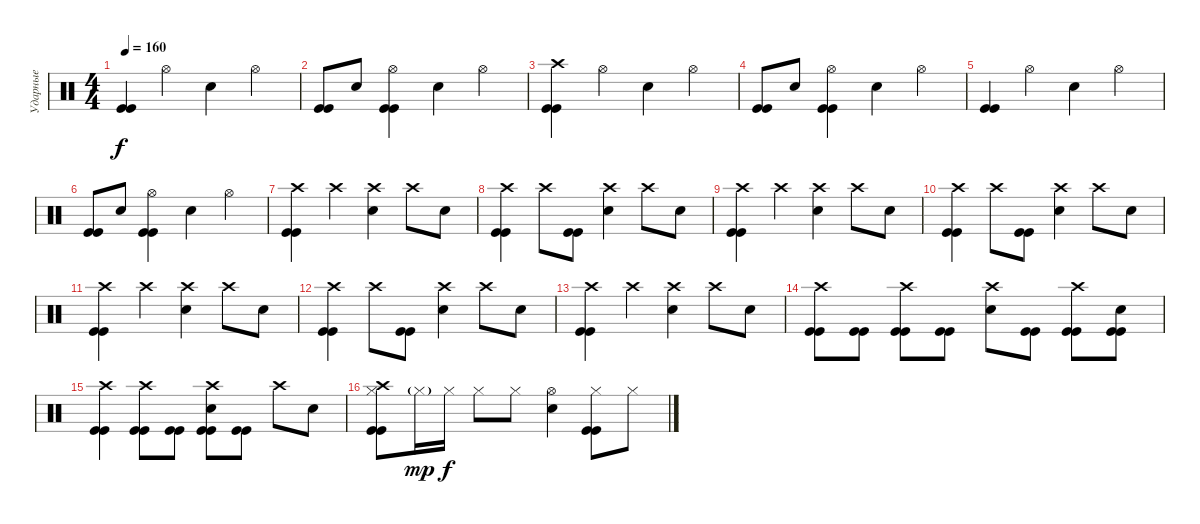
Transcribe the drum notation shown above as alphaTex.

\track ("Ударные" "Ударные") {instrument percussion}
\staff {score}
\articulation defaults
\ts (4 4)
\tempo 160
\clef neutral
\ks c
("Kick (hit)" "Kick (hit)").4{dy f} "Hi-Hat (open)".4 "Electric Snare (hit)".4 "Hi-Hat (open)".4 |
("Kick (hit)" "Kick (hit)").8 "Electric Snare (hit)".8 ("Hi-Hat (open)" "Kick (hit)" "Kick (hit)").4 "Electric Snare (hit)".4 "Hi-Hat (open)".4 |
("Crash high (hit)" "Kick (hit)" "Kick (hit)").4 "Hi-Hat (open)".4 "Electric Snare (hit)".4 "Hi-Hat (open)".4 |
("Kick (hit)" "Kick (hit)").8 "Electric Snare (hit)".8 ("Hi-Hat (open)" "Kick (hit)" "Kick (hit)").4 "Electric Snare (hit)".4 "Hi-Hat (open)".4 |
("Kick (hit)" "Kick (hit)").4 "Hi-Hat (open)".4 "Electric Snare (hit)".4 "Hi-Hat (open)".4 |
("Kick (hit)" "Kick (hit)").8 "Electric Snare (hit)".8 ("Hi-Hat (open)" "Kick (hit)" "Kick (hit)").4 "Electric Snare (hit)".4 "Hi-Hat (open)".4 |
("Crash high (hit)" "Kick (hit)" "Kick (hit)").4 "Crash high (hit)".4 ("Crash high (hit)" "Electric Snare (hit)").4 "Crash high (hit)".8 "Electric Snare (hit)".8 |
("Crash high (hit)" "Kick (hit)" "Kick (hit)").4 "Crash high (hit)".8 ("Kick (hit)" "Kick (hit)").8 ("Crash high (hit)" "Electric Snare (hit)").4 "Crash high (hit)".8 "Electric Snare (hit)".8 |
("Crash high (hit)" "Kick (hit)" "Kick (hit)").4 "Crash high (hit)".4 ("Crash high (hit)" "Electric Snare (hit)").4 "Crash high (hit)".8 "Electric Snare (hit)".8 |
("Crash high (hit)" "Kick (hit)" "Kick (hit)").4 "Crash high (hit)".8 ("Kick (hit)" "Kick (hit)").8 ("Crash high (hit)" "Electric Snare (hit)").4 "Crash high (hit)".8 "Electric Snare (hit)".8 |
("Crash high (hit)" "Kick (hit)" "Kick (hit)").4 "Crash high (hit)".4 ("Crash high (hit)" "Electric Snare (hit)").4 "Crash high (hit)".8 "Electric Snare (hit)".8 |
("Crash high (hit)" "Kick (hit)" "Kick (hit)").4 "Crash high (hit)".8 ("Kick (hit)" "Kick (hit)").8 ("Crash high (hit)" "Electric Snare (hit)").4 "Crash high (hit)".8 "Electric Snare (hit)".8 |
("Crash high (hit)" "Kick (hit)" "Kick (hit)").4 "Crash high (hit)".4 ("Crash high (hit)" "Electric Snare (hit)").4 "Crash high (hit)".8 "Electric Snare (hit)".8 |
("Crash high (hit)" "Kick (hit)" "Kick (hit)").8 ("Kick (hit)" "Kick (hit)").8 ("Crash high (hit)" "Kick (hit)" "Kick (hit)").8 ("Kick (hit)" "Kick (hit)").8 ("Crash high (hit)" "Electric Snare (hit)").8 ("Kick (hit)" "Kick (hit)").8 ("Crash high (hit)" "Kick (hit)" "Kick (hit)").8 ("Electric Snare (hit)" "Kick (hit)" "Kick (hit)").8 |
("Crash high (hit)" "Kick (hit)" "Kick (hit)").4 ("Crash high (hit)" "Kick (hit)" "Kick (hit)").8 ("Kick (hit)" "Kick (hit)").8 ("Crash high (hit)" "Electric Snare (hit)" "Kick (hit)" "Kick (hit)").8 ("Kick (hit)" "Kick (hit)").8 "Crash high (hit)".8 "Electric Snare (hit)".8 |
("Crash high (hit)" "Hi-Hat (closed)" "Kick (hit)" "Kick (hit)").8 "Hi-Hat (closed)"{g}.16{dy mp} "Hi-Hat (closed)".16{dy f} "Hi-Hat (closed)".8 "Hi-Hat (closed)".8 ("Electric Snare (hit)" "Hi-Hat (open)").4 ("Hi-Hat (closed)" "Kick (hit)" "Kick (hit)").8 "Hi-Hat (closed)".8
